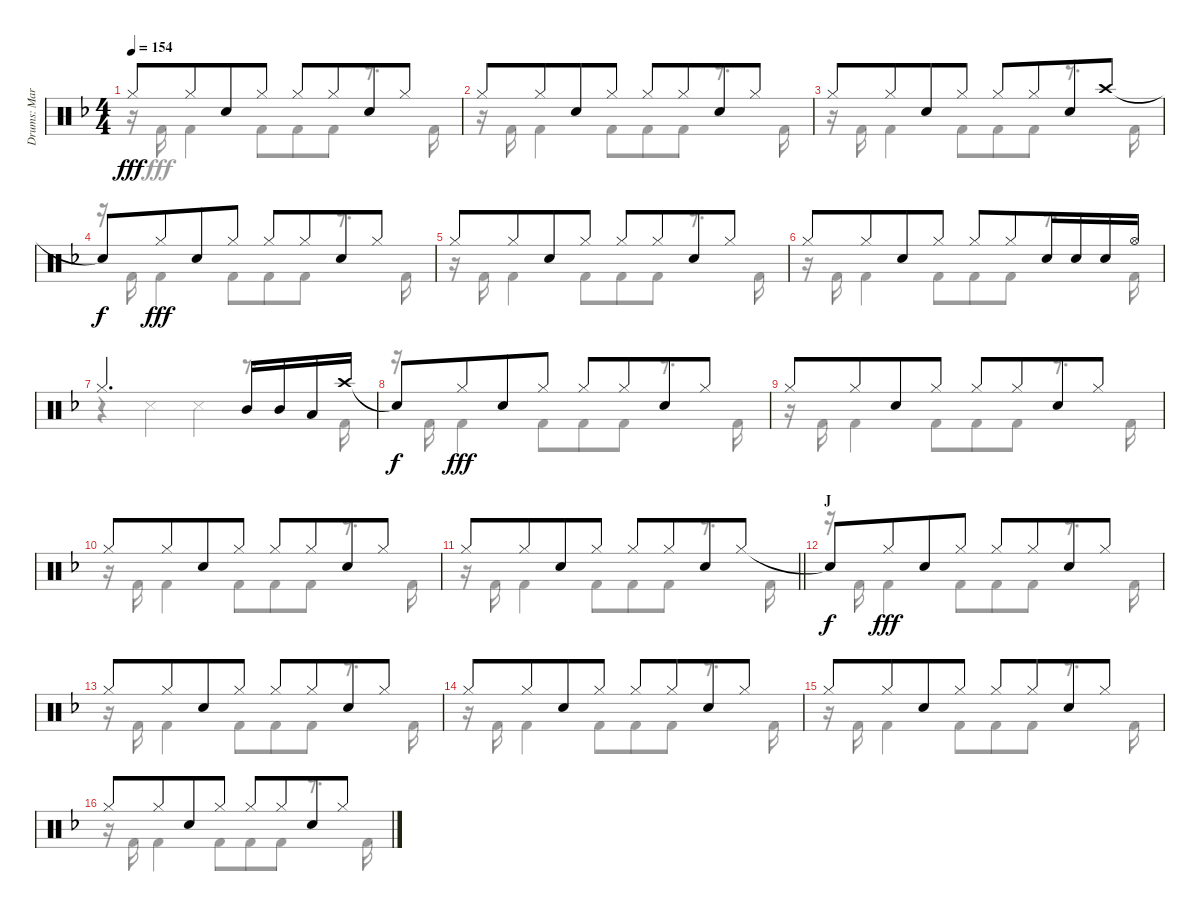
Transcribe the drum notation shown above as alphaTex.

\track ("Drums: Mark" "Drums: Mar") {instrument percussion}
\staff {score}
\articulation defaults
\voice
\ts (4 4)
\tempo 154
\clef neutral
\ks f "Hi-Hat (closed)".8{dy fff} "Hi-Hat (closed)".8{beam merge} "Snare (hit) 2".8 "Hi-Hat (closed)".8 "Hi-Hat (closed)".8 "Hi-Hat (closed)".8{beam merge} "Snare (hit) 2".8 "Hi-Hat (closed)".8
|
"Hi-Hat (closed)".8 "Hi-Hat (closed)".8{beam merge} "Snare (hit) 2".8 "Hi-Hat (closed)".8 "Hi-Hat (closed)".8 "Hi-Hat (closed)".8{beam merge} "Snare (hit) 2".8 "Hi-Hat (closed)".8 |
"Hi-Hat (closed)".8 "Hi-Hat (closed)".8{beam merge} "Snare (hit) 2".8 "Hi-Hat (closed)".8 "Hi-Hat (closed)".8 "Hi-Hat (closed)".8{beam merge} "Snare (hit) 2".8 "Crash high (hit)".8 |
"Snare (hit)"{t}.8{dy f} "Hi-Hat (closed)".8{dy fff beam merge} "Snare (hit) 2".8 "Hi-Hat (closed)".8 "Hi-Hat (closed)".8 "Hi-Hat (closed)".8{beam merge} "Snare (hit) 2".8 "Hi-Hat (closed)".8 |
"Hi-Hat (closed)".8 "Hi-Hat (closed)".8{beam merge} "Snare (hit) 2".8 "Hi-Hat (closed)".8 "Hi-Hat (closed)".8 "Hi-Hat (closed)".8{beam merge} "Snare (hit) 2".8 "Hi-Hat (closed)".8 |
"Hi-Hat (closed)".8 "Hi-Hat (closed)".8{beam merge} "Snare (hit) 2".8 "Hi-Hat (closed)".8 "Hi-Hat (closed)".8 "Hi-Hat (closed)".8{beam merge} "Snare (hit) 2".16 "Snare (hit) 2".16 "Snare (hit) 2".16 "Hi-Hat (open)".16 |
"Hi-Hat (closed)".2{d} "Mid Tom (hit)".16 "Mid Tom (hit)".16{beam merge} "Low Tom (hit)".16 "Crash high (hit)".16 |
"Snare (hit)"{t}.8{dy f} "Hi-Hat (closed)".8{dy fff beam merge} "Snare (hit) 2".8 "Hi-Hat (closed)".8 "Hi-Hat (closed)".8 "Hi-Hat (closed)".8{beam merge} "Snare (hit) 2".8 "Hi-Hat (closed)".8 |
"Hi-Hat (closed)".8 "Hi-Hat (closed)".8{beam merge} "Snare (hit) 2".8 "Hi-Hat (closed)".8 "Hi-Hat (closed)".8 "Hi-Hat (closed)".8{beam merge} "Snare (hit) 2".8 "Hi-Hat (closed)".8 |
"Hi-Hat (closed)".8 "Hi-Hat (closed)".8{beam merge} "Snare (hit) 2".8 "Hi-Hat (closed)".8 "Hi-Hat (closed)".8 "Hi-Hat (closed)".8{beam merge} "Snare (hit) 2".8 "Hi-Hat (closed)".8 |
\barLineRight lightlight "Hi-Hat (closed)".8 "Hi-Hat (closed)".8{beam merge} "Snare (hit) 2".8 "Hi-Hat (closed)".8 "Hi-Hat (closed)".8 "Hi-Hat (closed)".8{beam merge} "Snare (hit) 2".8 "Hi-Hat (closed)".8
|
\section ("" "J")
"Snare (hit)"{t}.8{dy f} "Hi-Hat (closed)".8{dy fff beam merge} "Snare (hit) 2".8 "Hi-Hat (closed)".8 "Hi-Hat (closed)".8 "Hi-Hat (closed)".8{beam merge} "Snare (hit) 2".8 "Hi-Hat (closed)".8 |
"Hi-Hat (closed)".8 "Hi-Hat (closed)".8{beam merge} "Snare (hit) 2".8 "Hi-Hat (closed)".8 "Hi-Hat (closed)".8 "Hi-Hat (closed)".8{beam merge} "Snare (hit) 2".8 "Hi-Hat (closed)".8 |
"Hi-Hat (closed)".8 "Hi-Hat (closed)".8{beam merge} "Snare (hit) 2".8 "Hi-Hat (closed)".8 "Hi-Hat (closed)".8 "Hi-Hat (closed)".8{beam merge} "Snare (hit) 2".8 "Hi-Hat (closed)".8 |
"Hi-Hat (closed)".8 "Hi-Hat (closed)".8{beam merge} "Snare (hit) 2".8 "Hi-Hat (closed)".8 "Hi-Hat (closed)".8 "Hi-Hat (closed)".8{beam merge} "Snare (hit) 2".8 "Hi-Hat (closed)".8 |
"Hi-Hat (closed)".8 "Hi-Hat (closed)".8{beam merge} "Snare (hit) 2".8 "Hi-Hat (closed)".8 "Hi-Hat (closed)".8 "Hi-Hat (closed)".8{beam merge} "Snare (hit) 2".8 "Hi-Hat (closed)".8
\voice
\clef neutral
\ottava regular
\simile none
\ks f
r.16{dy fff} "Kick (hit) 2".16 "Kick (hit) 2".4 "Kick (hit) 2".8{beam merge} "Kick (hit) 2".8 "Kick (hit) 2".8 r.8{d} "Kick (hit) 2".16 |
r.16 "Kick (hit) 2".16 "Kick (hit) 2".4 "Kick (hit) 2".8{beam merge} "Kick (hit) 2".8 "Kick (hit) 2".8 r.8{d} "Kick (hit) 2".16 |
r.16 "Kick (hit) 2".16 "Kick (hit) 2".4 "Kick (hit) 2".8{beam merge} "Kick (hit) 2".8 "Kick (hit) 2".8 r.8{d} "Kick (hit) 2".16 |
r.16 "Kick (hit) 2".16 "Kick (hit) 2".4 "Kick (hit) 2".8{beam merge} "Kick (hit) 2".8 "Kick (hit) 2".8 r.8{d} "Kick (hit) 2".16 |
r.16 "Kick (hit) 2".16 "Kick (hit) 2".4 "Kick (hit) 2".8{beam merge} "Kick (hit) 2".8 "Kick (hit) 2".8 r.8{d} "Kick (hit) 2".16 |
r.16 "Kick (hit) 2".16 "Kick (hit) 2".4 "Kick (hit) 2".8{beam merge} "Kick (hit) 2".8 "Kick (hit) 2".8 r.8{d} "Kick (hit) 2".16 |
r.4 "Snare (side stick) 3".4 "Snare (side stick) 3".4 r.8{d} "Kick (hit) 2".16 |
r.16 "Kick (hit) 2".16 "Kick (hit) 2".4 "Kick (hit) 2".8{beam merge} "Kick (hit) 2".8 "Kick (hit) 2".8 r.8{d} "Kick (hit) 2".16 |
r.16 "Kick (hit) 2".16 "Kick (hit) 2".4 "Kick (hit) 2".8{beam merge} "Kick (hit) 2".8 "Kick (hit) 2".8 r.8{d} "Kick (hit) 2".16 |
r.16 "Kick (hit) 2".16 "Kick (hit) 2".4 "Kick (hit) 2".8{beam merge} "Kick (hit) 2".8 "Kick (hit) 2".8 r.8{d} "Kick (hit) 2".16 |
\barLineRight lightlight
r.16 "Kick (hit) 2".16 "Kick (hit) 2".4 "Kick (hit) 2".8{beam merge} "Kick (hit) 2".8 "Kick (hit) 2".8 r.8{d} "Kick (hit) 2".16 |
r.16 "Kick (hit) 2".16 "Kick (hit) 2".4 "Kick (hit) 2".8{beam merge} "Kick (hit) 2".8 "Kick (hit) 2".8 r.8{d} "Kick (hit) 2".16 |
r.16 "Kick (hit) 2".16 "Kick (hit) 2".4 "Kick (hit) 2".8{beam merge} "Kick (hit) 2".8 "Kick (hit) 2".8 r.8{d} "Kick (hit) 2".16 |
r.16 "Kick (hit) 2".16 "Kick (hit) 2".4 "Kick (hit) 2".8{beam merge} "Kick (hit) 2".8 "Kick (hit) 2".8 r.8{d} "Kick (hit) 2".16 |
r.16 "Kick (hit) 2".16 "Kick (hit) 2".4 "Kick (hit) 2".8{beam merge} "Kick (hit) 2".8 "Kick (hit) 2".8 r.8{d} "Kick (hit) 2".16 |
r.16 "Kick (hit) 2".16 "Kick (hit) 2".4 "Kick (hit) 2".8{beam merge} "Kick (hit) 2".8 "Kick (hit) 2".8 r.8{d} "Kick (hit) 2".16
